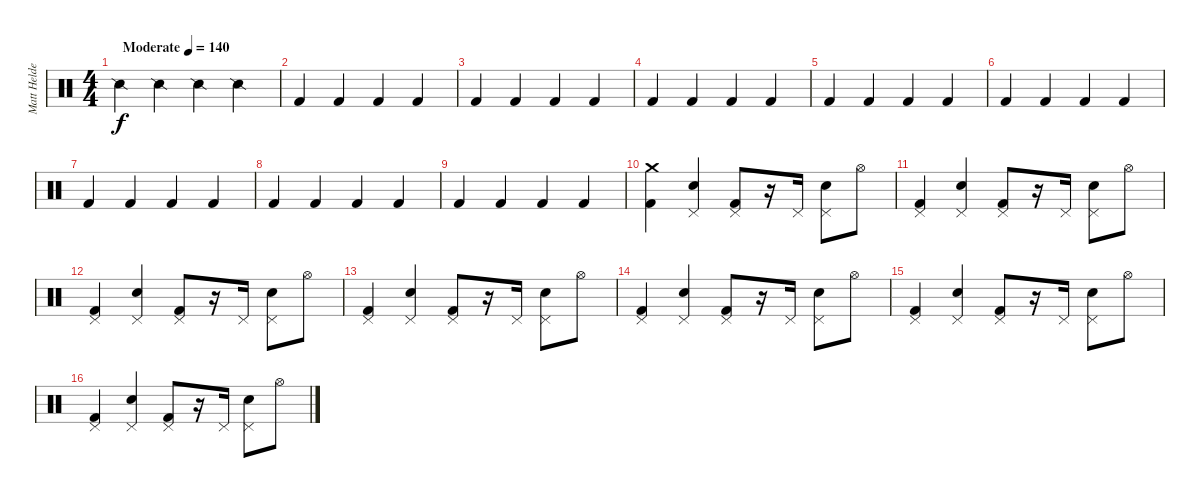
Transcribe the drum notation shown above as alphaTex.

\track ("Matt Helders" "Matt Helde") {instrument percussion}
\staff {score}
\articulation defaults
\ts (4 4)
\tempo (140 "Moderate")
\clef neutral
\ks c "Snare (side stick) 2".4{dy f} "Snare (side stick) 2".4 "Snare (side stick) 2".4 "Snare (side stick) 2".4
|
"Kick (hit) 2".4 "Kick (hit) 2".4 "Kick (hit) 2".4 "Kick (hit) 2".4 |
"Kick (hit) 2".4 "Kick (hit) 2".4 "Kick (hit) 2".4 "Kick (hit) 2".4 |
"Kick (hit) 2".4 "Kick (hit) 2".4 "Kick (hit) 2".4 "Kick (hit) 2".4 |
"Kick (hit) 2".4 "Kick (hit) 2".4 "Kick (hit) 2".4 "Kick (hit) 2".4 |
"Kick (hit) 2".4 "Kick (hit) 2".4 "Kick (hit) 2".4 "Kick (hit) 2".4 |
"Kick (hit) 2".4 "Kick (hit) 2".4 "Kick (hit) 2".4 "Kick (hit) 2".4 |
"Kick (hit) 2".4 "Kick (hit) 2".4 "Kick (hit) 2".4 "Kick (hit) 2".4 |
"Kick (hit) 2".4 "Kick (hit) 2".4 "Kick (hit) 2".4 "Kick (hit) 2".4 |
("Crash medium (hit)" "Kick (hit) 2").4 ("Pedal Hi-Hat (hit)" "Snare (hit) 2").4 ("Pedal Hi-Hat (hit)" "Kick (hit) 2").8 r.16 "Pedal Hi-Hat (hit)".16 ("Pedal Hi-Hat (hit)" "Snare (hit) 2").8 "Hi-Hat (open)".8 |
("Pedal Hi-Hat (hit)" "Kick (hit) 2").4 ("Pedal Hi-Hat (hit)" "Snare (hit) 2").4 ("Pedal Hi-Hat (hit)" "Kick (hit) 2").8 r.16 "Pedal Hi-Hat (hit)".16 ("Pedal Hi-Hat (hit)" "Snare (hit) 2").8 "Hi-Hat (open)".8 |
("Pedal Hi-Hat (hit)" "Kick (hit) 2").4 ("Pedal Hi-Hat (hit)" "Snare (hit) 2").4 ("Pedal Hi-Hat (hit)" "Kick (hit) 2").8 r.16 "Pedal Hi-Hat (hit)".16 ("Pedal Hi-Hat (hit)" "Snare (hit) 2").8 "Hi-Hat (open)".8 |
("Pedal Hi-Hat (hit)" "Kick (hit) 2").4 ("Pedal Hi-Hat (hit)" "Snare (hit) 2").4 ("Pedal Hi-Hat (hit)" "Kick (hit) 2").8 r.16 "Pedal Hi-Hat (hit)".16 ("Pedal Hi-Hat (hit)" "Snare (hit) 2").8 "Hi-Hat (open)".8 |
("Pedal Hi-Hat (hit)" "Kick (hit) 2").4 ("Pedal Hi-Hat (hit)" "Snare (hit) 2").4 ("Pedal Hi-Hat (hit)" "Kick (hit) 2").8 r.16 "Pedal Hi-Hat (hit)".16 ("Pedal Hi-Hat (hit)" "Snare (hit) 2").8 "Hi-Hat (open)".8 |
("Pedal Hi-Hat (hit)" "Kick (hit) 2").4 ("Pedal Hi-Hat (hit)" "Snare (hit) 2").4 ("Pedal Hi-Hat (hit)" "Kick (hit) 2").8 r.16 "Pedal Hi-Hat (hit)".16 ("Pedal Hi-Hat (hit)" "Snare (hit) 2").8 "Hi-Hat (open)".8 |
("Pedal Hi-Hat (hit)" "Kick (hit) 2").4 ("Pedal Hi-Hat (hit)" "Snare (hit) 2").4 ("Pedal Hi-Hat (hit)" "Kick (hit) 2").8 r.16 "Pedal Hi-Hat (hit)".16 ("Pedal Hi-Hat (hit)" "Snare (hit) 2").8 "Hi-Hat (open)".8
